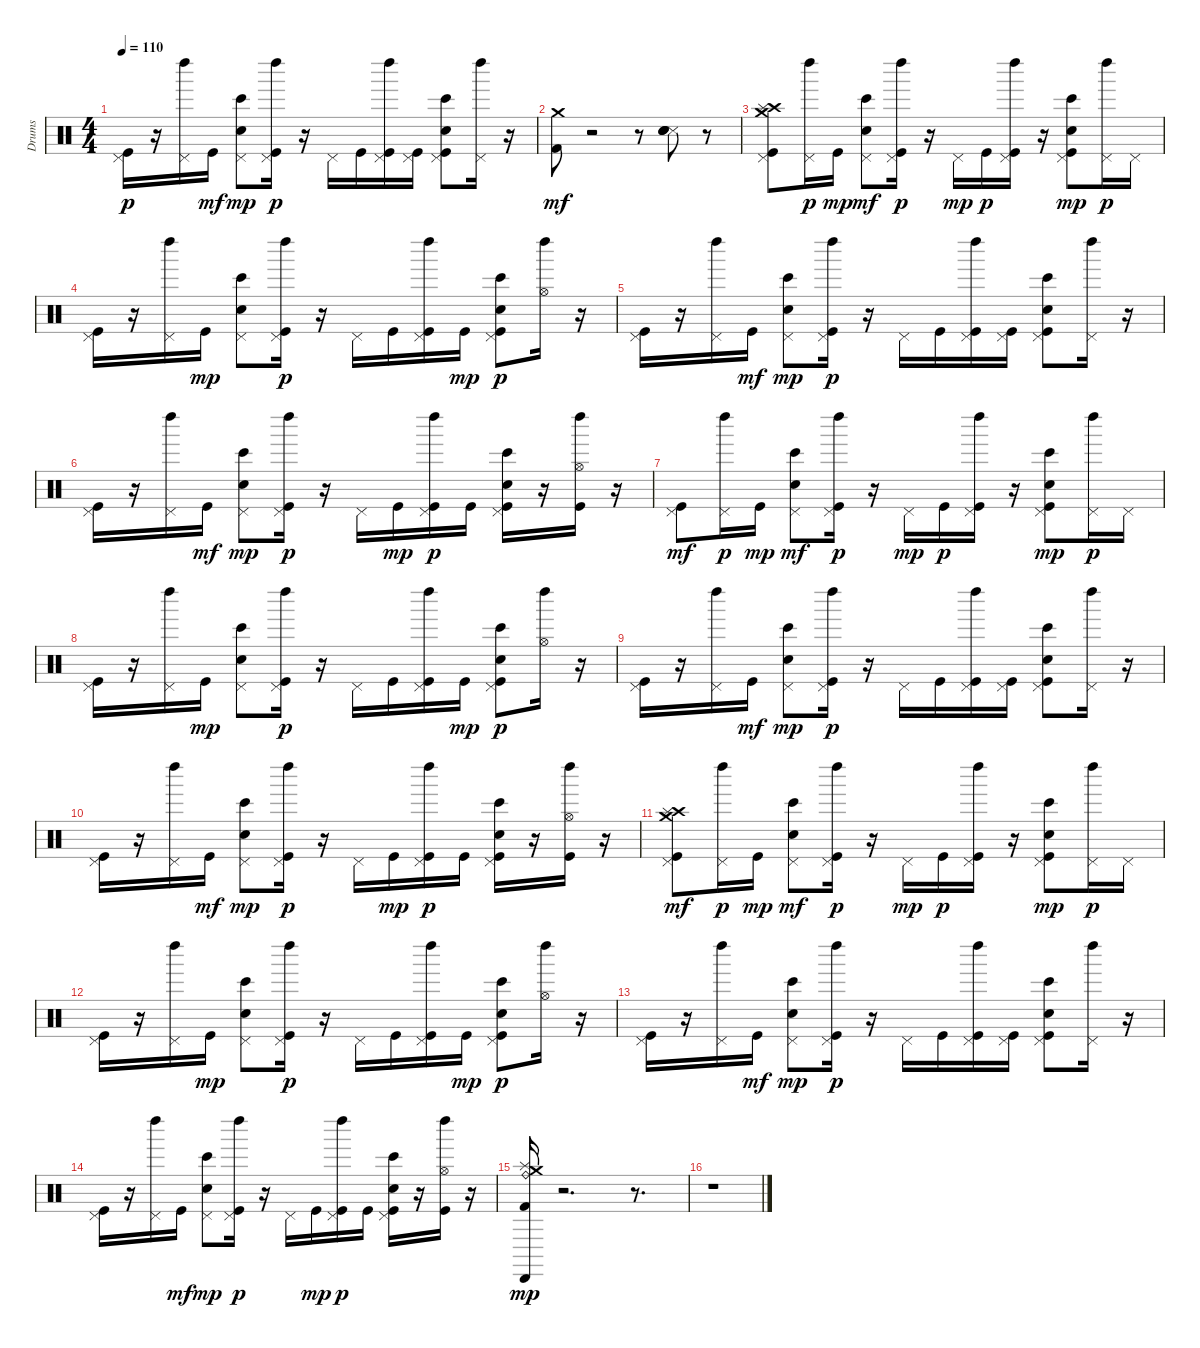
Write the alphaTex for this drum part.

\track ("Drums" "Drums") {instrument percussion}
\staff {score}
\articulation defaults
\ts (4 4)
\tempo 110
\clef neutral
\ks c
("Kick (hit)" "Pedal Hi-Hat (hit)").16{dy p} r.16 ("Pedal Hi-Hat (hit)" "Left Maraca (hit)").16 "Kick (hit)".16{dy mf} ("Bongo High (hit)" "Electric Snare (hit)" "Pedal Hi-Hat (hit)").8{dy mp} ("Kick (hit)" "Pedal Hi-Hat (hit)" "Left Maraca (hit)").16{dy p} r.16 "Pedal Hi-Hat (hit)".16 "Kick (hit)".16 ("Kick (hit)" "Pedal Hi-Hat (hit)" "Left Maraca (hit)").16 ("Kick (hit)" "Pedal Hi-Hat (hit)").16 ("Bongo High (hit)" "Kick (hit)" "Electric Snare (hit)" "Pedal Hi-Hat (hit)").8 ("Pedal Hi-Hat (hit)" "Left Maraca (hit)").16 r.16 |
("Kick (hit) 2" "Crash medium (hit)").8{dy mf} r.2 r.8 ("Snare (side stick) 3" "Snare (hit) 2" "Hand Clap (hit)" "Electric Snare (hit)").8 r.8 |
("Kick (hit)" "Pedal Hi-Hat (hit)" "Crash high (hit)" "Splash (hit)" "Crash medium (hit)").8 ("Pedal Hi-Hat (hit)" "Left Maraca (hit)").16{dy p} "Kick (hit)".16{dy mp} ("Bongo High (hit)" "Electric Snare (hit)" "Pedal Hi-Hat (hit)").8{dy mf} ("Kick (hit)" "Pedal Hi-Hat (hit)" "Left Maraca (hit)").16{dy p} r.16 "Pedal Hi-Hat (hit)".16{dy mp} "Kick (hit)".16{dy p} ("Kick (hit)" "Pedal Hi-Hat (hit)" "Left Maraca (hit)").16 r.16 ("Bongo High (hit)" "Kick (hit)" "Electric Snare (hit)" "Pedal Hi-Hat (hit)").8{dy mp} ("Pedal Hi-Hat (hit)" "Left Maraca (hit)").16{dy p} "Pedal Hi-Hat (hit)".16 |
("Kick (hit)" "Pedal Hi-Hat (hit)").16 r.16 ("Pedal Hi-Hat (hit)" "Left Maraca (hit)").16 "Kick (hit)".16{dy mp} ("Bongo High (hit)" "Electric Snare (hit)" "Pedal Hi-Hat (hit)").8 ("Kick (hit)" "Pedal Hi-Hat (hit)" "Left Maraca (hit)").16{dy p} r.16 "Pedal Hi-Hat (hit)".16 "Kick (hit)".16 ("Kick (hit)" "Pedal Hi-Hat (hit)" "Left Maraca (hit)").16 "Kick (hit)".16{dy mp} ("Bongo High (hit)" "Kick (hit)" "Electric Snare (hit)" "Pedal Hi-Hat (hit)").8{dy p} ("Hi-Hat (open)" "Left Maraca (hit)").16 r.16 |
("Kick (hit)" "Pedal Hi-Hat (hit)").16 r.16 ("Pedal Hi-Hat (hit)" "Left Maraca (hit)").16 "Kick (hit)".16{dy mf} ("Bongo High (hit)" "Electric Snare (hit)" "Pedal Hi-Hat (hit)").8{dy mp} ("Kick (hit)" "Pedal Hi-Hat (hit)" "Left Maraca (hit)").16{dy p} r.16 "Pedal Hi-Hat (hit)".16 "Kick (hit)".16 ("Kick (hit)" "Pedal Hi-Hat (hit)" "Left Maraca (hit)").16 ("Kick (hit)" "Pedal Hi-Hat (hit)").16 ("Bongo High (hit)" "Kick (hit)" "Electric Snare (hit)" "Pedal Hi-Hat (hit)").8 ("Pedal Hi-Hat (hit)" "Left Maraca (hit)").16 r.16 |
("Kick (hit)" "Pedal Hi-Hat (hit)").16 r.16 ("Pedal Hi-Hat (hit)" "Left Maraca (hit)").16 "Kick (hit)".16{dy mf} ("Bongo High (hit)" "Electric Snare (hit)" "Pedal Hi-Hat (hit)").8{dy mp} ("Kick (hit)" "Pedal Hi-Hat (hit)" "Left Maraca (hit)").16{dy p} r.16 "Pedal Hi-Hat (hit)".16 "Kick (hit)".16{dy mp} ("Kick (hit)" "Pedal Hi-Hat (hit)" "Left Maraca (hit)").16{dy p} "Kick (hit)".16 ("Bongo High (hit)" "Kick (hit)" "Electric Snare (hit)" "Pedal Hi-Hat (hit)").16 r.16 ("Kick (hit)" "Hi-Hat (open)" "Left Maraca (hit)").16 r.16 |
("Kick (hit)" "Pedal Hi-Hat (hit)").8{dy mf} ("Pedal Hi-Hat (hit)" "Left Maraca (hit)").16{dy p} "Kick (hit)".16{dy mp} ("Bongo High (hit)" "Electric Snare (hit)" "Pedal Hi-Hat (hit)").8{dy mf} ("Kick (hit)" "Pedal Hi-Hat (hit)" "Left Maraca (hit)").16{dy p} r.16 "Pedal Hi-Hat (hit)".16{dy mp} "Kick (hit)".16{dy p} ("Kick (hit)" "Pedal Hi-Hat (hit)" "Left Maraca (hit)").16 r.16 ("Bongo High (hit)" "Kick (hit)" "Electric Snare (hit)" "Pedal Hi-Hat (hit)").8{dy mp} ("Pedal Hi-Hat (hit)" "Left Maraca (hit)").16{dy p} "Pedal Hi-Hat (hit)".16 |
("Kick (hit)" "Pedal Hi-Hat (hit)").16 r.16 ("Pedal Hi-Hat (hit)" "Left Maraca (hit)").16 "Kick (hit)".16{dy mp} ("Bongo High (hit)" "Electric Snare (hit)" "Pedal Hi-Hat (hit)").8 ("Kick (hit)" "Pedal Hi-Hat (hit)" "Left Maraca (hit)").16{dy p} r.16 "Pedal Hi-Hat (hit)".16 "Kick (hit)".16 ("Kick (hit)" "Pedal Hi-Hat (hit)" "Left Maraca (hit)").16 "Kick (hit)".16{dy mp} ("Bongo High (hit)" "Kick (hit)" "Electric Snare (hit)" "Pedal Hi-Hat (hit)").8{dy p} ("Hi-Hat (open)" "Left Maraca (hit)").16 r.16 |
("Kick (hit)" "Pedal Hi-Hat (hit)").16 r.16 ("Pedal Hi-Hat (hit)" "Left Maraca (hit)").16 "Kick (hit)".16{dy mf} ("Bongo High (hit)" "Electric Snare (hit)" "Pedal Hi-Hat (hit)").8{dy mp} ("Kick (hit)" "Pedal Hi-Hat (hit)" "Left Maraca (hit)").16{dy p} r.16 "Pedal Hi-Hat (hit)".16 "Kick (hit)".16 ("Kick (hit)" "Pedal Hi-Hat (hit)" "Left Maraca (hit)").16 ("Kick (hit)" "Pedal Hi-Hat (hit)").16 ("Bongo High (hit)" "Kick (hit)" "Electric Snare (hit)" "Pedal Hi-Hat (hit)").8 ("Pedal Hi-Hat (hit)" "Left Maraca (hit)").16 r.16 |
("Kick (hit)" "Pedal Hi-Hat (hit)").16 r.16 ("Pedal Hi-Hat (hit)" "Left Maraca (hit)").16 "Kick (hit)".16{dy mf} ("Bongo High (hit)" "Electric Snare (hit)" "Pedal Hi-Hat (hit)").8{dy mp} ("Kick (hit)" "Pedal Hi-Hat (hit)" "Left Maraca (hit)").16{dy p} r.16 "Pedal Hi-Hat (hit)".16 "Kick (hit)".16{dy mp} ("Kick (hit)" "Pedal Hi-Hat (hit)" "Left Maraca (hit)").16{dy p} "Kick (hit)".16 ("Bongo High (hit)" "Kick (hit)" "Electric Snare (hit)" "Pedal Hi-Hat (hit)").16 r.16 ("Kick (hit)" "Hi-Hat (open)" "Left Maraca (hit)").16 r.16 |
("Kick (hit)" "Pedal Hi-Hat (hit)" "Crash high (hit)" "Splash (hit)" "Crash medium (hit)").8{dy mf} ("Pedal Hi-Hat (hit)" "Left Maraca (hit)").16{dy p} "Kick (hit)".16{dy mp} ("Bongo High (hit)" "Electric Snare (hit)" "Pedal Hi-Hat (hit)").8{dy mf} ("Kick (hit)" "Pedal Hi-Hat (hit)" "Left Maraca (hit)").16{dy p} r.16 "Pedal Hi-Hat (hit)".16{dy mp} "Kick (hit)".16{dy p} ("Kick (hit)" "Pedal Hi-Hat (hit)" "Left Maraca (hit)").16 r.16 ("Bongo High (hit)" "Kick (hit)" "Electric Snare (hit)" "Pedal Hi-Hat (hit)").8{dy mp} ("Pedal Hi-Hat (hit)" "Left Maraca (hit)").16{dy p} "Pedal Hi-Hat (hit)".16 |
("Kick (hit)" "Pedal Hi-Hat (hit)").16 r.16 ("Pedal Hi-Hat (hit)" "Left Maraca (hit)").16 "Kick (hit)".16{dy mp} ("Bongo High (hit)" "Electric Snare (hit)" "Pedal Hi-Hat (hit)").8 ("Kick (hit)" "Pedal Hi-Hat (hit)" "Left Maraca (hit)").16{dy p} r.16 "Pedal Hi-Hat (hit)".16 "Kick (hit)".16 ("Kick (hit)" "Pedal Hi-Hat (hit)" "Left Maraca (hit)").16 "Kick (hit)".16{dy mp} ("Bongo High (hit)" "Kick (hit)" "Electric Snare (hit)" "Pedal Hi-Hat (hit)").8{dy p} ("Hi-Hat (open)" "Left Maraca (hit)").16 r.16 |
("Kick (hit)" "Pedal Hi-Hat (hit)").16 r.16 ("Pedal Hi-Hat (hit)" "Left Maraca (hit)").16 "Kick (hit)".16{dy mf} ("Bongo High (hit)" "Electric Snare (hit)" "Pedal Hi-Hat (hit)").8{dy mp} ("Kick (hit)" "Pedal Hi-Hat (hit)" "Left Maraca (hit)").16{dy p} r.16 "Pedal Hi-Hat (hit)".16 "Kick (hit)".16 ("Kick (hit)" "Pedal Hi-Hat (hit)" "Left Maraca (hit)").16 ("Kick (hit)" "Pedal Hi-Hat (hit)").16 ("Bongo High (hit)" "Kick (hit)" "Electric Snare (hit)" "Pedal Hi-Hat (hit)").8 ("Pedal Hi-Hat (hit)" "Left Maraca (hit)").16 r.16 |
("Kick (hit)" "Pedal Hi-Hat (hit)").16 r.16 ("Pedal Hi-Hat (hit)" "Left Maraca (hit)").16 "Kick (hit)".16{dy mf} ("Bongo High (hit)" "Electric Snare (hit)" "Pedal Hi-Hat (hit)").8{dy mp} ("Kick (hit)" "Pedal Hi-Hat (hit)" "Left Maraca (hit)").16{dy p} r.16 "Pedal Hi-Hat (hit)".16 "Kick (hit)".16{dy mp} ("Kick (hit)" "Pedal Hi-Hat (hit)" "Left Maraca (hit)").16{dy p} "Kick (hit)".16 ("Bongo High (hit)" "Kick (hit)" "Electric Snare (hit)" "Pedal Hi-Hat (hit)").16 r.16 ("Kick (hit)" "Hi-Hat (open)" "Left Maraca (hit)").16 r.16 |
("Kick (hit) 2" "Ride (bell)" "Splash (hit)" "Crash medium (hit)" "Cabasa (hit)").16{dy mp} r.2{d} r.8{d} |
r.1
